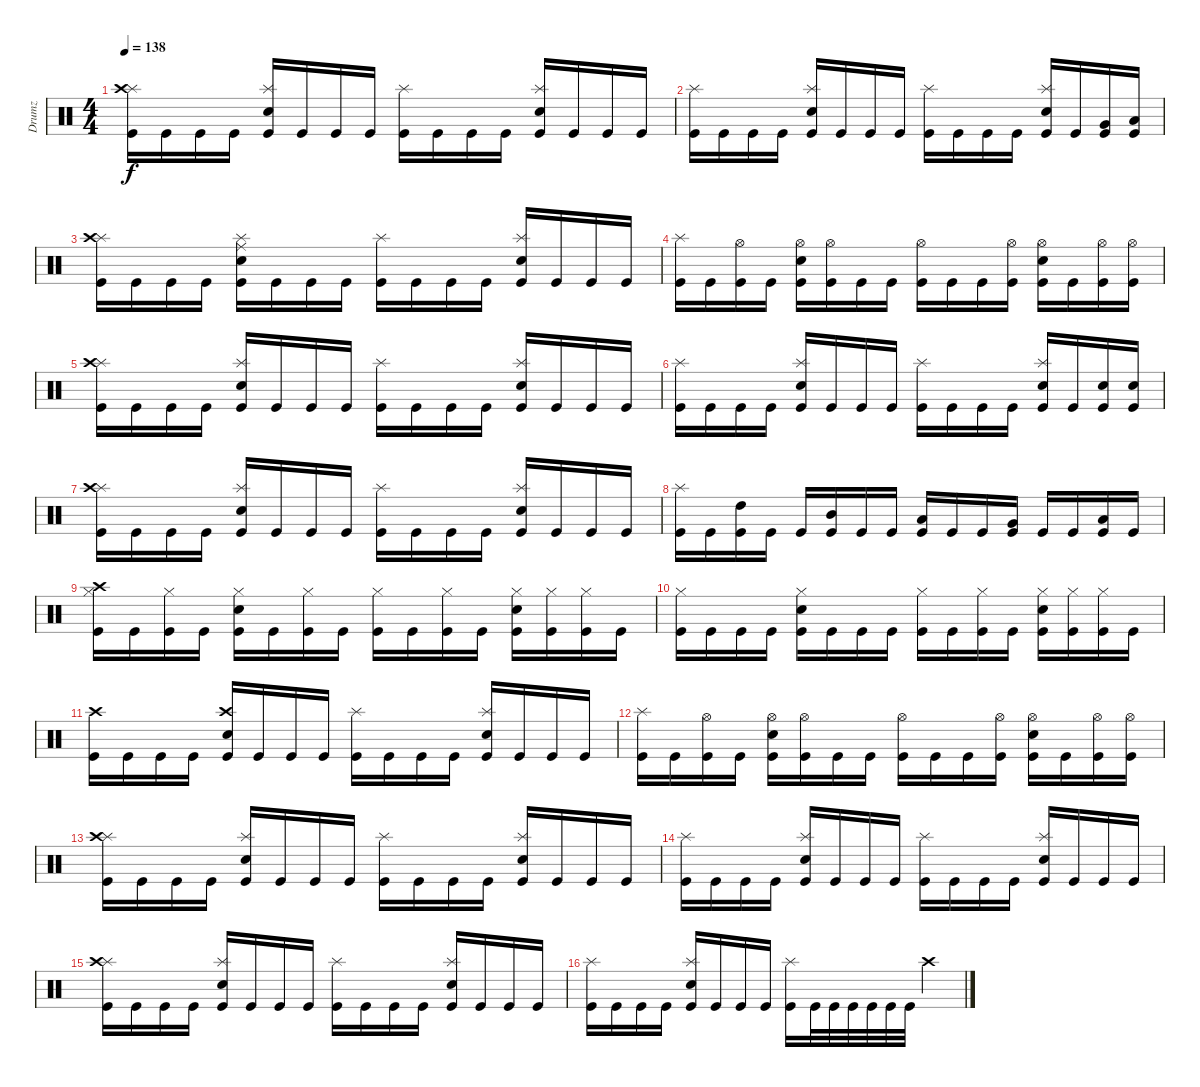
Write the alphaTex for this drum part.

\track ("Drumz" "Drumz") {instrument percussion}
\staff {score}
\articulation defaults
\ts (4 4)
\tempo 138
\clef neutral
\ks c
("Kick (hit)" "Splash (hit)" "Crash high (hit)").16{dy f} "Kick (hit)".16 "Kick (hit)".16 "Kick (hit)".16 ("Kick (hit)" "Splash (hit)" "Snare (hit) 2").16 "Kick (hit)".16 "Kick (hit)".16 "Kick (hit)".16 ("Kick (hit)" "Splash (hit)").16 "Kick (hit)".16 "Kick (hit)".16 "Kick (hit)".16 ("Kick (hit)" "Splash (hit)" "Snare (hit) 2").16 "Kick (hit)".16 "Kick (hit)".16 "Kick (hit)".16 |
("Kick (hit)" "Splash (hit)").16 "Kick (hit)".16 "Kick (hit)".16 "Kick (hit)".16 ("Kick (hit)" "Splash (hit)" "Snare (hit) 2").16 "Kick (hit)".16 "Kick (hit)".16 "Kick (hit)".16 ("Kick (hit)" "Splash (hit)").16 "Kick (hit)".16 "Kick (hit)".16 "Kick (hit)".16 ("Kick (hit)" "Splash (hit)" "Snare (hit) 2").16 "Kick (hit)".16 ("Kick (hit)" "Very Low Tom (hit)").16 ("Kick (hit)" "Low Floor Tom (hit)").16 |
("Kick (hit)" "Splash (hit)" "Crash high (hit)").16 "Kick (hit)".16 "Kick (hit)".16 "Kick (hit)".16 ("Kick (hit)" "Splash (hit)" "Snare (hit) 2" "Ride (middle)").16 "Kick (hit)".16 "Kick (hit)".16 "Kick (hit)".16 ("Kick (hit)" "Splash (hit)").16 "Kick (hit)".16 "Kick (hit)".16 "Kick (hit)".16 ("Kick (hit)" "Splash (hit)" "Snare (hit) 2").16 "Kick (hit)".16 "Kick (hit)".16 "Kick (hit)".16 |
("Kick (hit)" "Splash (hit)").16 "Kick (hit)".16 ("Kick (hit)" "Hi-Hat (open)").16 "Kick (hit)".16 ("Kick (hit)" "Hi-Hat (open)" "Snare (hit) 2").16 ("Kick (hit)" "Hi-Hat (open)").16 "Kick (hit)".16 "Kick (hit)".16 ("Kick (hit)" "Hi-Hat (open)").16 "Kick (hit)".16 "Kick (hit)".16 ("Kick (hit)" "Hi-Hat (open)").16 ("Kick (hit)" "Hi-Hat (open)" "Snare (hit) 2").16 "Kick (hit)".16 ("Kick (hit)" "Hi-Hat (open)").16 ("Kick (hit)" "Hi-Hat (open)").16 |
("Kick (hit)" "Splash (hit)" "Crash high (hit)").16 "Kick (hit)".16 "Kick (hit)".16 "Kick (hit)".16 ("Kick (hit)" "Splash (hit)" "Snare (hit) 2").16 "Kick (hit)".16 "Kick (hit)".16 "Kick (hit)".16 ("Kick (hit)" "Splash (hit)").16 "Kick (hit)".16 "Kick (hit)".16 "Kick (hit)".16 ("Kick (hit)" "Splash (hit)" "Snare (hit) 2").16 "Kick (hit)".16 "Kick (hit)".16 "Kick (hit)".16 |
("Kick (hit)" "Splash (hit)").16 "Kick (hit)".16 "Kick (hit)".16 "Kick (hit)".16 ("Kick (hit)" "Splash (hit)" "Snare (hit) 2").16 "Kick (hit)".16 "Kick (hit)".16 "Kick (hit)".16 ("Kick (hit)" "Splash (hit)").16 "Kick (hit)".16 "Kick (hit)".16 "Kick (hit)".16 ("Kick (hit)" "Splash (hit)" "Snare (hit) 2").16 "Kick (hit)".16 ("Kick (hit)" "Snare (hit) 2").16 ("Kick (hit)" "Snare (hit) 2").16 |
("Kick (hit)" "Splash (hit)" "Crash high (hit)").16 "Kick (hit)".16 "Kick (hit)".16 "Kick (hit)".16 ("Kick (hit)" "Splash (hit)" "Snare (hit) 2").16 "Kick (hit)".16 "Kick (hit)".16 "Kick (hit)".16 ("Kick (hit)" "Splash (hit)").16 "Kick (hit)".16 "Kick (hit)".16 "Kick (hit)".16 ("Kick (hit)" "Splash (hit)" "Snare (hit) 2").16 "Kick (hit)".16 "Kick (hit)".16 "Kick (hit)".16 |
("Kick (hit)" "Splash (hit)").16 "Kick (hit)".16 ("Kick (hit)" "High Tom (hit)").16 "Kick (hit)".16 "Kick (hit)".16 ("Kick (hit)" "Mid Tom (hit)").16 "Kick (hit)".16 "Kick (hit)".16 ("Kick (hit)" "Low Tom (hit)").16 "Kick (hit)".16 "Kick (hit)".16 ("Kick (hit)" "Very Low Tom (hit)").16 "Kick (hit)".16 "Kick (hit)".16 ("Kick (hit)" "Low Floor Tom (hit)").16 "Kick (hit)".16 |
("Kick (hit)" "Hi-Hat (closed)" "Crash high (hit)").16 "Kick (hit)".16 ("Kick (hit)" "Hi-Hat (closed)").16 "Kick (hit)".16 ("Kick (hit)" "Hi-Hat (closed)" "Snare (hit) 2").16 "Kick (hit)".16 ("Kick (hit)" "Hi-Hat (closed)").16 "Kick (hit)".16 ("Kick (hit)" "Hi-Hat (closed)").16 "Kick (hit)".16 ("Kick (hit)" "Hi-Hat (closed)").16 "Kick (hit)".16 ("Kick (hit)" "Hi-Hat (closed)" "Snare (hit) 2").16 ("Kick (hit)" "Hi-Hat (closed)").16 ("Kick (hit)" "Hi-Hat (closed)").16 "Kick (hit)".16 |
("Kick (hit)" "Hi-Hat (closed)").16 "Kick (hit)".16 "Kick (hit)".16 "Kick (hit)".16 ("Kick (hit)" "Hi-Hat (closed)" "Snare (hit) 2").16 "Kick (hit)".16 "Kick (hit)".16 "Kick (hit)".16 ("Kick (hit)" "Hi-Hat (closed)").16 "Kick (hit)".16 ("Kick (hit)" "Hi-Hat (closed)").16 "Kick (hit)".16 ("Kick (hit)" "Hi-Hat (closed)" "Snare (hit) 2").16 ("Kick (hit)" "Hi-Hat (closed)").16 ("Kick (hit)" "Hi-Hat (closed)").16 "Kick (hit)".16 |
("Kick (hit)" "Crash high (hit)").16 "Kick (hit)".16 "Kick (hit)".16 "Kick (hit)".16 ("Kick (hit)" "Crash high (hit)" "Snare (hit) 2").16 "Kick (hit)".16 "Kick (hit)".16 "Kick (hit)".16 ("Kick (hit)" "Splash (hit)").16 "Kick (hit)".16 "Kick (hit)".16 "Kick (hit)".16 ("Kick (hit)" "Splash (hit)" "Snare (hit) 2").16 "Kick (hit)".16 "Kick (hit)".16 "Kick (hit)".16 |
("Kick (hit)" "Splash (hit)").16 "Kick (hit)".16 ("Kick (hit)" "Hi-Hat (open)").16 "Kick (hit)".16 ("Kick (hit)" "Hi-Hat (open)" "Snare (hit) 2").16 ("Kick (hit)" "Hi-Hat (open)").16 "Kick (hit)".16 "Kick (hit)".16 ("Kick (hit)" "Hi-Hat (open)").16 "Kick (hit)".16 "Kick (hit)".16 ("Kick (hit)" "Hi-Hat (open)").16 ("Kick (hit)" "Hi-Hat (open)" "Snare (hit) 2").16 "Kick (hit)".16 ("Kick (hit)" "Hi-Hat (open)").16 ("Kick (hit)" "Hi-Hat (open)").16 |
("Kick (hit)" "Splash (hit)" "Crash high (hit)").16 "Kick (hit)".16 "Kick (hit)".16 "Kick (hit)".16 ("Kick (hit)" "Splash (hit)" "Snare (hit) 2").16 "Kick (hit)".16 "Kick (hit)".16 "Kick (hit)".16 ("Kick (hit)" "Splash (hit)").16 "Kick (hit)".16 "Kick (hit)".16 "Kick (hit)".16 ("Kick (hit)" "Splash (hit)" "Snare (hit) 2").16 "Kick (hit)".16 "Kick (hit)".16 "Kick (hit)".16 |
("Kick (hit)" "Splash (hit)").16 "Kick (hit)".16 "Kick (hit)".16 "Kick (hit)".16 ("Kick (hit)" "Splash (hit)" "Snare (hit) 2").16 "Kick (hit)".16 "Kick (hit)".16 "Kick (hit)".16 ("Kick (hit)" "Splash (hit)").16 "Kick (hit)".16 "Kick (hit)".16 "Kick (hit)".16 ("Kick (hit)" "Splash (hit)" "Snare (hit) 2").16 "Kick (hit)".16 "Kick (hit)".16 "Kick (hit)".16 |
("Kick (hit)" "Splash (hit)" "Crash high (hit)").16 "Kick (hit)".16 "Kick (hit)".16 "Kick (hit)".16 ("Kick (hit)" "Splash (hit)" "Snare (hit) 2").16 "Kick (hit)".16 "Kick (hit)".16 "Kick (hit)".16 ("Kick (hit)" "Splash (hit)").16 "Kick (hit)".16 "Kick (hit)".16 "Kick (hit)".16 ("Kick (hit)" "Splash (hit)" "Snare (hit) 2").16 "Kick (hit)".16 "Kick (hit)".16 "Kick (hit)".16 |
("Kick (hit)" "Splash (hit)").16 "Kick (hit)".16 "Kick (hit)".16 "Kick (hit)".16 ("Kick (hit)" "Splash (hit)" "Snare (hit) 2").16 "Kick (hit)".16 "Kick (hit)".16 "Kick (hit)".16 ("Kick (hit)" "Splash (hit)").16 "Kick (hit)".32 "Kick (hit)".32 "Kick (hit)".32 "Kick (hit)".32 "Kick (hit)".32 "Kick (hit)".32 "Crash high (hit)".4
